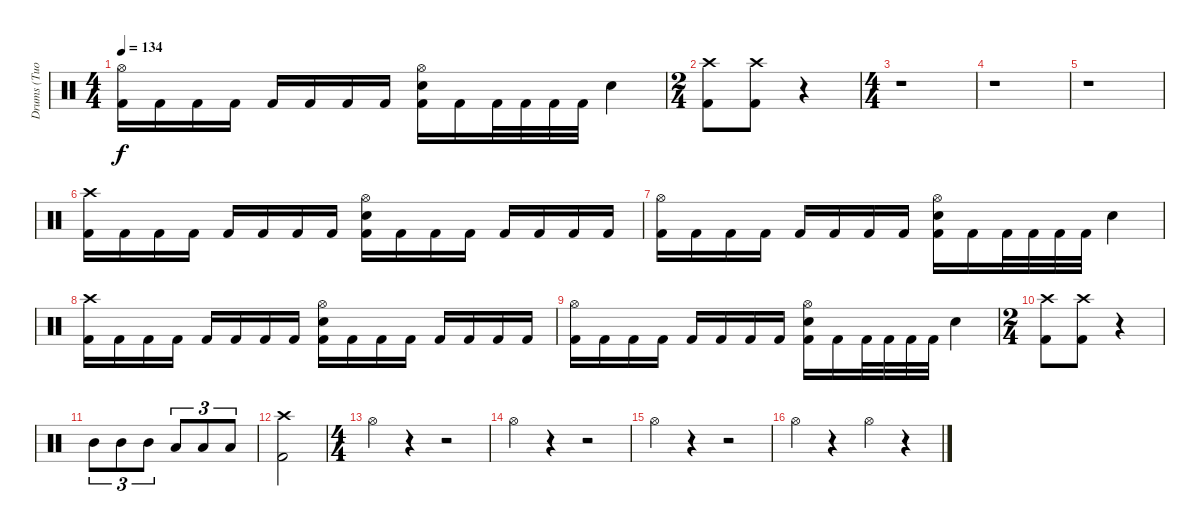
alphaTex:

\track ("Drums (Tuomo Lassila)" "Drums (Tuo") {instrument percussion}
\staff {score}
\articulation defaults
\ts (4 4)
\tempo 134
\clef neutral
\ks c
("Hi-Hat (open)" "Kick (hit) 2").16{dy f} "Kick (hit) 2".16 "Kick (hit) 2".16 "Kick (hit) 2".16 "Kick (hit) 2".16 "Kick (hit) 2".16 "Kick (hit) 2".16 "Kick (hit) 2".16 ("Hi-Hat (open)" "Snare (hit) 2" "Kick (hit) 2").16 "Kick (hit) 2".16 "Kick (hit) 2".32 "Kick (hit) 2".32 "Kick (hit) 2".32 "Kick (hit) 2".32 "Snare (hit) 2".4 |
\ts (2 4)
("Crash high (hit)" "Kick (hit) 2").8 ("Crash high (hit)" "Kick (hit) 2").8 r.4 |
\ts (4 4)
r.1 |
r.1 |
r.1 |
("Crash high (hit)" "Kick (hit) 2").16 "Kick (hit) 2".16 "Kick (hit) 2".16 "Kick (hit) 2".16 "Kick (hit) 2".16 "Kick (hit) 2".16 "Kick (hit) 2".16 "Kick (hit) 2".16 ("Hi-Hat (open)" "Snare (hit) 2" "Kick (hit) 2").16 "Kick (hit) 2".16 "Kick (hit) 2".16 "Kick (hit) 2".16 "Kick (hit) 2".16 "Kick (hit) 2".16 "Kick (hit) 2".16 "Kick (hit) 2".16 |
("Hi-Hat (open)" "Kick (hit) 2").16 "Kick (hit) 2".16 "Kick (hit) 2".16 "Kick (hit) 2".16 "Kick (hit) 2".16 "Kick (hit) 2".16 "Kick (hit) 2".16 "Kick (hit) 2".16 ("Hi-Hat (open)" "Snare (hit) 2" "Kick (hit) 2").16 "Kick (hit) 2".16 "Kick (hit) 2".32 "Kick (hit) 2".32 "Kick (hit) 2".32 "Kick (hit) 2".32 "Snare (hit) 2".4 |
("Crash high (hit)" "Kick (hit) 2").16 "Kick (hit) 2".16 "Kick (hit) 2".16 "Kick (hit) 2".16 "Kick (hit) 2".16 "Kick (hit) 2".16 "Kick (hit) 2".16 "Kick (hit) 2".16 ("Hi-Hat (open)" "Snare (hit) 2" "Kick (hit) 2").16 "Kick (hit) 2".16 "Kick (hit) 2".16 "Kick (hit) 2".16 "Kick (hit) 2".16 "Kick (hit) 2".16 "Kick (hit) 2".16 "Kick (hit) 2".16 |
("Hi-Hat (open)" "Kick (hit) 2").16 "Kick (hit) 2".16 "Kick (hit) 2".16 "Kick (hit) 2".16 "Kick (hit) 2".16 "Kick (hit) 2".16 "Kick (hit) 2".16 "Kick (hit) 2".16 ("Hi-Hat (open)" "Snare (hit) 2" "Kick (hit) 2").16 "Kick (hit) 2".16 "Kick (hit) 2".32 "Kick (hit) 2".32 "Kick (hit) 2".32 "Kick (hit) 2".32 "Snare (hit) 2".4 |
\ts (2 4)
("Crash high (hit)" "Kick (hit) 2").8 ("Crash high (hit)" "Kick (hit) 2").8 r.4 |
"Mid Tom (hit)".8{tu (3 2)} "Mid Tom (hit)".8{tu (3 2)} "Mid Tom (hit)".8{tu (3 2)} "Low Tom (hit)".8{tu (3 2)} "Low Tom (hit)".8{tu (3 2)} "Low Tom (hit)".8{tu (3 2)} |
("Crash high (hit)" "Kick (hit) 2").2 |
\ts (4 4)
"Hi-Hat (open)".4 r.4 r.2 |
"Hi-Hat (open)".4 r.4 r.2 |
"Hi-Hat (open)".4 r.4 r.2 |
"Hi-Hat (open)".4 r.4 "Hi-Hat (open)".4 r.4
